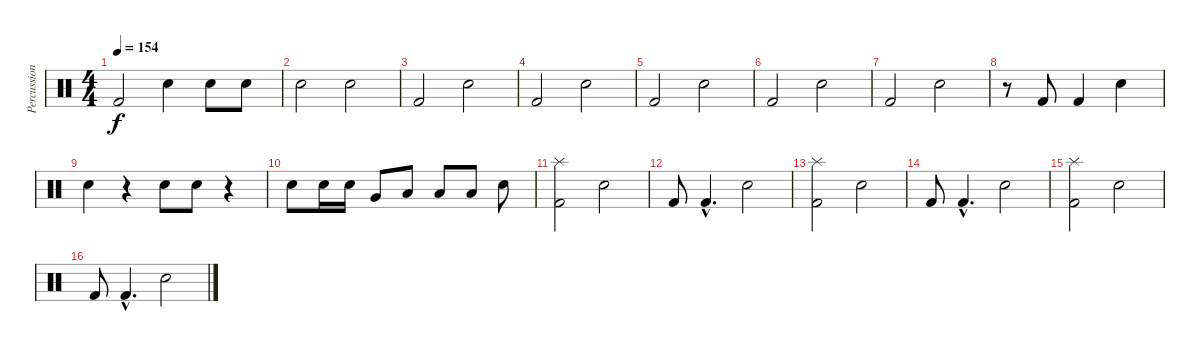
\track ("Percussion" "Percussion") {instrument percussion}
\staff {score}
\articulation defaults
\ts (4 4)
\tempo 154
\clef neutral
\ks c "Kick (hit) 2".2{dy f} "Snare (hit) 2".4 "Snare (hit) 2".8 "Snare (hit) 2".8
|
"Snare (hit) 2".2 "Snare (hit) 2".2 |
"Kick (hit) 2".2 "Snare (hit) 2".2 |
"Kick (hit) 2".2 "Snare (hit) 2".2 |
"Kick (hit) 2".2 "Snare (hit) 2".2 |
"Kick (hit) 2".2 "Snare (hit) 2".2 |
"Kick (hit) 2".2 "Snare (hit) 2".2 |
r.8 "Kick (hit) 2".8 "Kick (hit) 2".4 "Snare (hit) 2".4 |
"Snare (hit) 2".4 r.4 "Snare (hit) 2".8 "Snare (hit) 2".8 r.4 |
"Snare (hit) 2".8 "Snare (hit) 2".16 "Snare (hit) 2".16 "Very Low Tom (hit)".8 "Low Floor Tom (hit)".8 "Low Floor Tom (hit)".8 "Low Floor Tom (hit)".8 "Snare (hit) 2".8 |
("Kick (hit) 2" "Splash (hit)").2 "Snare (hit) 2".2 |
"Kick (hit) 2".8 "Kick (hit) 2"{hac}.4{d} "Snare (hit) 2".2 |
("Kick (hit) 2" "Splash (hit)").2 "Snare (hit) 2".2 |
"Kick (hit) 2".8 "Kick (hit) 2"{hac}.4{d} "Snare (hit) 2".2 |
("Kick (hit) 2" "Splash (hit)").2 "Snare (hit) 2".2 |
"Kick (hit) 2".8 "Kick (hit) 2"{hac}.4{d} "Snare (hit) 2".2
